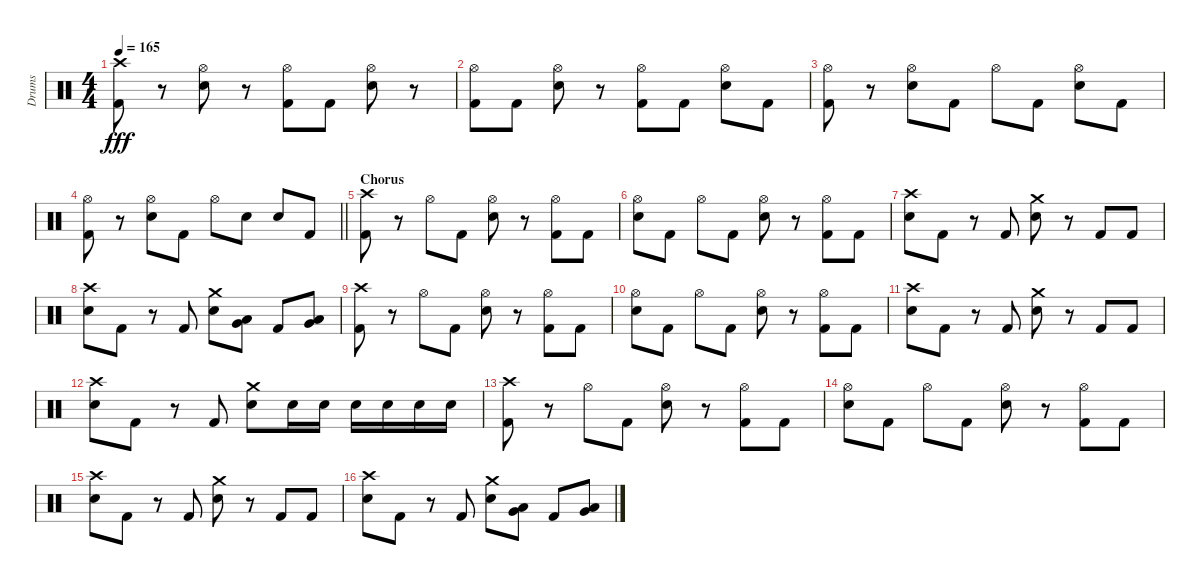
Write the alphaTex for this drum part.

\track ("Drums" "Drums") {instrument percussion}
\staff {score}
\articulation defaults
\ts (4 4)
\tempo 165
\clef neutral
\ks c
("Crash high (hit)" "Kick (hit) 2").8{dy fff} r.8 ("Hi-Hat (open)" "Electric Snare (hit)").8 r.8 ("Hi-Hat (open)" "Kick (hit) 2").8 "Kick (hit) 2".8 ("Hi-Hat (open)" "Electric Snare (hit)").8 r.8 |
("Hi-Hat (open)" "Kick (hit) 2").8 "Kick (hit) 2".8 ("Hi-Hat (open)" "Electric Snare (hit)").8 r.8 ("Hi-Hat (open)" "Kick (hit) 2").8 "Kick (hit) 2".8 ("Hi-Hat (open)" "Electric Snare (hit)").8 "Kick (hit) 2".8 |
("Hi-Hat (open)" "Kick (hit) 2").8 r.8 ("Hi-Hat (open)" "Electric Snare (hit)").8 "Kick (hit) 2".8 "Hi-Hat (open)".8 "Kick (hit) 2".8 ("Hi-Hat (open)" "Electric Snare (hit)").8 "Kick (hit) 2".8 |
\barLineRight lightlight
("Hi-Hat (open)" "Kick (hit) 2").8 r.8 ("Hi-Hat (open)" "Electric Snare (hit)").8 "Kick (hit) 2".8 "Hi-Hat (open)".8 "Electric Snare (hit)".8 "Electric Snare (hit)".8 "Kick (hit) 2".8 |
\section ("" "Chorus")
("Crash high (hit)" "Kick (hit) 2").8 r.8 "Hi-Hat (open)".8 "Kick (hit) 2".8 ("Hi-Hat (open)" "Electric Snare (hit)").8 r.8 ("Hi-Hat (open)" "Kick (hit) 2").8 "Kick (hit) 2".8 |
("Hi-Hat (open)" "Electric Snare (hit)").8 "Kick (hit) 2".8 "Hi-Hat (open)".8 "Kick (hit) 2".8 ("Hi-Hat (open)" "Electric Snare (hit)").8 r.8 ("Hi-Hat (open)" "Kick (hit) 2").8 "Kick (hit) 2".8 |
("Crash high (hit)" "Electric Snare (hit)").8 "Kick (hit) 2".8 r.8 "Kick (hit) 2".8 ("Crash medium (hit)" "Electric Snare (hit)").8 r.8 "Kick (hit) 2".8 "Kick (hit) 2".8 |
("Crash high (hit)" "Electric Snare (hit)").8 "Kick (hit) 2".8 r.8 "Kick (hit) 2".8 ("Crash medium (hit)" "Electric Snare (hit)").8 ("Very Low Tom (hit)" "Low Tom (hit)").8 "Kick (hit) 2".8 ("Low Floor Tom (hit)" "Very Low Tom (hit)").8 |
("Crash high (hit)" "Kick (hit) 2").8 r.8 "Hi-Hat (open)".8 "Kick (hit) 2".8 ("Hi-Hat (open)" "Electric Snare (hit)").8 r.8 ("Hi-Hat (open)" "Kick (hit) 2").8 "Kick (hit) 2".8 |
("Hi-Hat (open)" "Electric Snare (hit)").8 "Kick (hit) 2".8 "Hi-Hat (open)".8 "Kick (hit) 2".8 ("Hi-Hat (open)" "Electric Snare (hit)").8 r.8 ("Hi-Hat (open)" "Kick (hit) 2").8 "Kick (hit) 2".8 |
("Crash high (hit)" "Electric Snare (hit)").8 "Kick (hit) 2".8 r.8 "Kick (hit) 2".8 ("Crash medium (hit)" "Electric Snare (hit)").8 r.8 "Kick (hit) 2".8 "Kick (hit) 2".8 |
("Crash high (hit)" "Electric Snare (hit)").8 "Kick (hit) 2".8 r.8 "Kick (hit) 2".8 ("Crash medium (hit)" "Electric Snare (hit)").8 "Electric Snare (hit)".16 "Electric Snare (hit)".16 "Electric Snare (hit)".16 "Electric Snare (hit)".16 "Electric Snare (hit)".16 "Electric Snare (hit)".16 |
("Crash high (hit)" "Kick (hit) 2").8 r.8 "Hi-Hat (open)".8 "Kick (hit) 2".8 ("Hi-Hat (open)" "Electric Snare (hit)").8 r.8 ("Hi-Hat (open)" "Kick (hit) 2").8 "Kick (hit) 2".8 |
("Hi-Hat (open)" "Electric Snare (hit)").8 "Kick (hit) 2".8 "Hi-Hat (open)".8 "Kick (hit) 2".8 ("Hi-Hat (open)" "Electric Snare (hit)").8 r.8 ("Hi-Hat (open)" "Kick (hit) 2").8 "Kick (hit) 2".8 |
("Crash high (hit)" "Electric Snare (hit)").8 "Kick (hit) 2".8 r.8 "Kick (hit) 2".8 ("Crash medium (hit)" "Electric Snare (hit)").8 r.8 "Kick (hit) 2".8 "Kick (hit) 2".8 |
("Crash high (hit)" "Electric Snare (hit)").8 "Kick (hit) 2".8 r.8 "Kick (hit) 2".8 ("Crash medium (hit)" "Electric Snare (hit)").8 ("Very Low Tom (hit)" "Low Tom (hit)").8 "Kick (hit) 2".8 ("Low Floor Tom (hit)" "Very Low Tom (hit)").8
